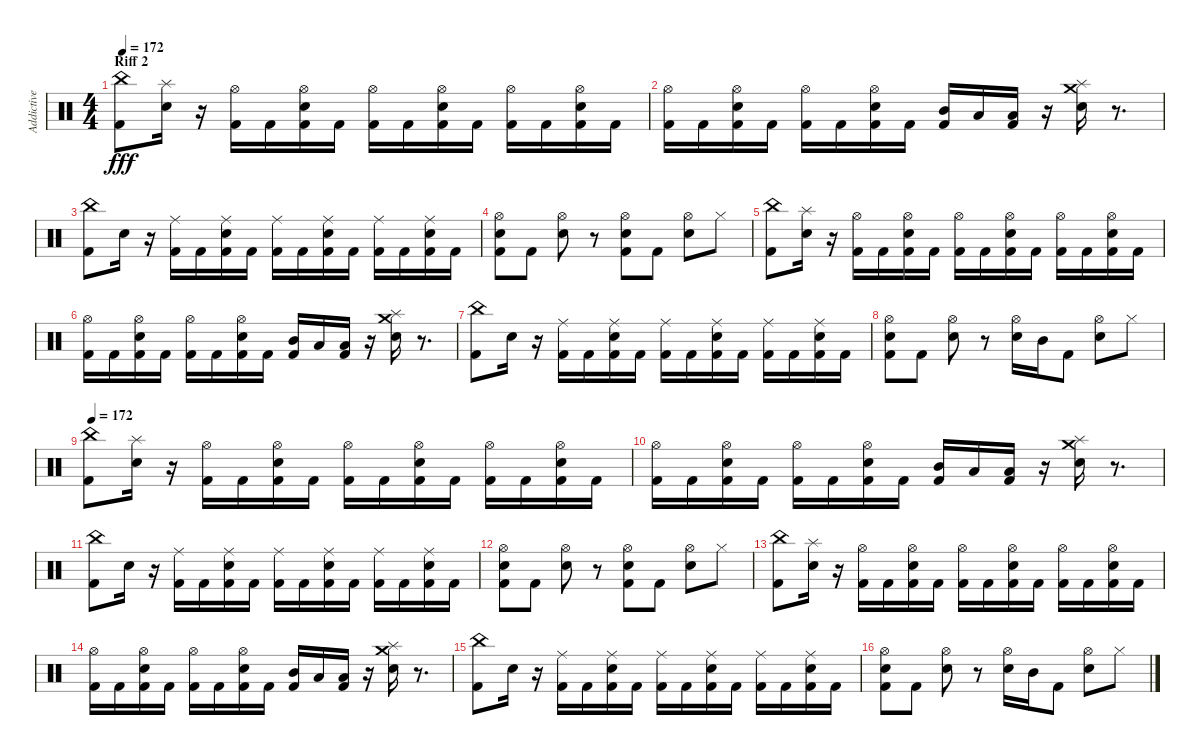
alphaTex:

\track ("Addictive" "Addictive") {instrument percussion}
\staff {score}
\articulation defaults
\ts (4 4)
\section ("" "Riff 2")
\tempo 172
\clef neutral
\ks c
("Kick (hit) 2" "China (hit)").8{dy fff} ("Snare (hit) 2" "Splash (hit)").16 r.16 ("Kick (hit) 2" "Hi-Hat (open)").16 "Kick (hit) 2".16 ("Kick (hit) 2" "Snare (hit) 2" "Hi-Hat (open)").16 "Kick (hit) 2".16 ("Kick (hit) 2" "Hi-Hat (open)").16 "Kick (hit) 2".16 ("Kick (hit) 2" "Snare (hit) 2" "Hi-Hat (open)").16 "Kick (hit) 2".16 ("Kick (hit) 2" "Hi-Hat (open)").16 "Kick (hit) 2".16 ("Kick (hit) 2" "Snare (hit) 2" "Hi-Hat (open)").16 "Kick (hit) 2".16 |
("Kick (hit) 2" "Hi-Hat (open)").16 "Kick (hit) 2".16 ("Kick (hit) 2" "Snare (hit) 2" "Hi-Hat (open)").16 "Kick (hit) 2".16 ("Kick (hit) 2" "Hi-Hat (open)").16 "Kick (hit) 2".16 ("Kick (hit) 2" "Snare (hit) 2" "Hi-Hat (open)").16 "Kick (hit) 2".16 ("Kick (hit) 2" "Mid Tom (hit)").16 "Low Tom (hit)".16 ("Kick (hit) 2" "Low Tom (hit)").16 r.16 ("Snare (hit) 2" "Splash (hit)" "Crash medium (hit)").16 r.8{d} |
("Kick (hit) 2" "China (hit)").8 "Snare (hit) 2".16 r.16 ("Kick (hit) 2" "Ride (middle)").16 "Kick (hit) 2".16 ("Kick (hit) 2" "Snare (hit) 2" "Ride (middle)").16 "Kick (hit) 2".16 ("Kick (hit) 2" "Ride (middle)").16 "Kick (hit) 2".16 ("Kick (hit) 2" "Snare (hit) 2" "Ride (middle)").16 "Kick (hit) 2".16 ("Kick (hit) 2" "Ride (middle)").16 "Kick (hit) 2".16 ("Kick (hit) 2" "Snare (hit) 2" "Ride (middle)").16 "Kick (hit) 2".16 |
("Kick (hit) 2" "Snare (hit) 2" "Hi-Hat (open)").8 "Kick (hit) 2".8 ("Snare (hit) 2" "Hi-Hat (open)").8 r.8 ("Kick (hit) 2" "Snare (hit) 2" "Hi-Hat (open)").8 "Kick (hit) 2".8 ("Snare (hit) 2" "Hi-Hat (open)").8 "Hi-Hat (closed)".8 |
("Kick (hit) 2" "China (hit)").8 ("Snare (hit) 2" "Splash (hit)").16 r.16 ("Kick (hit) 2" "Hi-Hat (open)").16 "Kick (hit) 2".16 ("Kick (hit) 2" "Snare (hit) 2" "Hi-Hat (open)").16 "Kick (hit) 2".16 ("Kick (hit) 2" "Hi-Hat (open)").16 "Kick (hit) 2".16 ("Kick (hit) 2" "Snare (hit) 2" "Hi-Hat (open)").16 "Kick (hit) 2".16 ("Kick (hit) 2" "Hi-Hat (open)").16 "Kick (hit) 2".16 ("Kick (hit) 2" "Snare (hit) 2" "Hi-Hat (open)").16 "Kick (hit) 2".16 |
("Kick (hit) 2" "Hi-Hat (open)").16 "Kick (hit) 2".16 ("Kick (hit) 2" "Snare (hit) 2" "Hi-Hat (open)").16 "Kick (hit) 2".16 ("Kick (hit) 2" "Hi-Hat (open)").16 "Kick (hit) 2".16 ("Kick (hit) 2" "Snare (hit) 2" "Hi-Hat (open)").16 "Kick (hit) 2".16 ("Kick (hit) 2" "Mid Tom (hit)").16 "Low Tom (hit)".16 ("Kick (hit) 2" "Low Tom (hit)").16 r.16 ("Snare (hit) 2" "Splash (hit)" "Crash medium (hit)").16 r.8{d} |
("Kick (hit) 2" "China (hit)").8 "Snare (hit) 2".16 r.16 ("Kick (hit) 2" "Ride (middle)").16 "Kick (hit) 2".16 ("Kick (hit) 2" "Snare (hit) 2" "Ride (middle)").16 "Kick (hit) 2".16 ("Kick (hit) 2" "Ride (middle)").16 "Kick (hit) 2".16 ("Kick (hit) 2" "Snare (hit) 2" "Ride (middle)").16 "Kick (hit) 2".16 ("Kick (hit) 2" "Ride (middle)").16 "Kick (hit) 2".16 ("Kick (hit) 2" "Snare (hit) 2" "Ride (middle)").16 "Kick (hit) 2".16 |
("Kick (hit) 2" "Snare (hit) 2" "Hi-Hat (open)").8 "Kick (hit) 2".8 ("Snare (hit) 2" "Hi-Hat (open)").8 r.8 ("Snare (hit) 2" "Hi-Hat (open)").16 "Mid Tom (hit)".16 "Kick (hit) 2".8 ("Snare (hit) 2" "Hi-Hat (open)").8 "Hi-Hat (closed)".8 |
\tempo 172
("Kick (hit) 2" "China (hit)").8 ("Snare (hit) 2" "Splash (hit)").16 r.16 ("Kick (hit) 2" "Hi-Hat (open)").16 "Kick (hit) 2".16 ("Kick (hit) 2" "Snare (hit) 2" "Hi-Hat (open)").16 "Kick (hit) 2".16 ("Kick (hit) 2" "Hi-Hat (open)").16 "Kick (hit) 2".16 ("Kick (hit) 2" "Snare (hit) 2" "Hi-Hat (open)").16 "Kick (hit) 2".16 ("Kick (hit) 2" "Hi-Hat (open)").16 "Kick (hit) 2".16 ("Kick (hit) 2" "Snare (hit) 2" "Hi-Hat (open)").16 "Kick (hit) 2".16 |
("Kick (hit) 2" "Hi-Hat (open)").16 "Kick (hit) 2".16 ("Kick (hit) 2" "Snare (hit) 2" "Hi-Hat (open)").16 "Kick (hit) 2".16 ("Kick (hit) 2" "Hi-Hat (open)").16 "Kick (hit) 2".16 ("Kick (hit) 2" "Snare (hit) 2" "Hi-Hat (open)").16 "Kick (hit) 2".16 ("Kick (hit) 2" "Mid Tom (hit)").16 "Low Tom (hit)".16 ("Kick (hit) 2" "Low Tom (hit)").16 r.16 ("Snare (hit) 2" "Splash (hit)" "Crash medium (hit)").16 r.8{d} |
("Kick (hit) 2" "China (hit)").8 "Snare (hit) 2".16 r.16 ("Kick (hit) 2" "Ride (middle)").16 "Kick (hit) 2".16 ("Kick (hit) 2" "Snare (hit) 2" "Ride (middle)").16 "Kick (hit) 2".16 ("Kick (hit) 2" "Ride (middle)").16 "Kick (hit) 2".16 ("Kick (hit) 2" "Snare (hit) 2" "Ride (middle)").16 "Kick (hit) 2".16 ("Kick (hit) 2" "Ride (middle)").16 "Kick (hit) 2".16 ("Kick (hit) 2" "Snare (hit) 2" "Ride (middle)").16 "Kick (hit) 2".16 |
("Kick (hit) 2" "Snare (hit) 2" "Hi-Hat (open)").8 "Kick (hit) 2".8 ("Snare (hit) 2" "Hi-Hat (open)").8 r.8 ("Kick (hit) 2" "Snare (hit) 2" "Hi-Hat (open)").8 "Kick (hit) 2".8 ("Snare (hit) 2" "Hi-Hat (open)").8 "Hi-Hat (closed)".8 |
("Kick (hit) 2" "China (hit)").8 ("Snare (hit) 2" "Splash (hit)").16 r.16 ("Kick (hit) 2" "Hi-Hat (open)").16 "Kick (hit) 2".16 ("Kick (hit) 2" "Snare (hit) 2" "Hi-Hat (open)").16 "Kick (hit) 2".16 ("Kick (hit) 2" "Hi-Hat (open)").16 "Kick (hit) 2".16 ("Kick (hit) 2" "Snare (hit) 2" "Hi-Hat (open)").16 "Kick (hit) 2".16 ("Kick (hit) 2" "Hi-Hat (open)").16 "Kick (hit) 2".16 ("Kick (hit) 2" "Snare (hit) 2" "Hi-Hat (open)").16 "Kick (hit) 2".16 |
("Kick (hit) 2" "Hi-Hat (open)").16 "Kick (hit) 2".16 ("Kick (hit) 2" "Snare (hit) 2" "Hi-Hat (open)").16 "Kick (hit) 2".16 ("Kick (hit) 2" "Hi-Hat (open)").16 "Kick (hit) 2".16 ("Kick (hit) 2" "Snare (hit) 2" "Hi-Hat (open)").16 "Kick (hit) 2".16 ("Kick (hit) 2" "Mid Tom (hit)").16 "Low Tom (hit)".16 ("Kick (hit) 2" "Low Tom (hit)").16 r.16 ("Snare (hit) 2" "Splash (hit)" "Crash medium (hit)").16 r.8{d} |
("Kick (hit) 2" "China (hit)").8 "Snare (hit) 2".16 r.16 ("Kick (hit) 2" "Ride (middle)").16 "Kick (hit) 2".16 ("Kick (hit) 2" "Snare (hit) 2" "Ride (middle)").16 "Kick (hit) 2".16 ("Kick (hit) 2" "Ride (middle)").16 "Kick (hit) 2".16 ("Kick (hit) 2" "Snare (hit) 2" "Ride (middle)").16 "Kick (hit) 2".16 ("Kick (hit) 2" "Ride (middle)").16 "Kick (hit) 2".16 ("Kick (hit) 2" "Snare (hit) 2" "Ride (middle)").16 "Kick (hit) 2".16 |
("Kick (hit) 2" "Snare (hit) 2" "Hi-Hat (open)").8 "Kick (hit) 2".8 ("Snare (hit) 2" "Hi-Hat (open)").8 r.8 ("Snare (hit) 2" "Hi-Hat (open)").16 "Mid Tom (hit)".16 "Kick (hit) 2".8 ("Snare (hit) 2" "Hi-Hat (open)").8 "Hi-Hat (closed)".8
